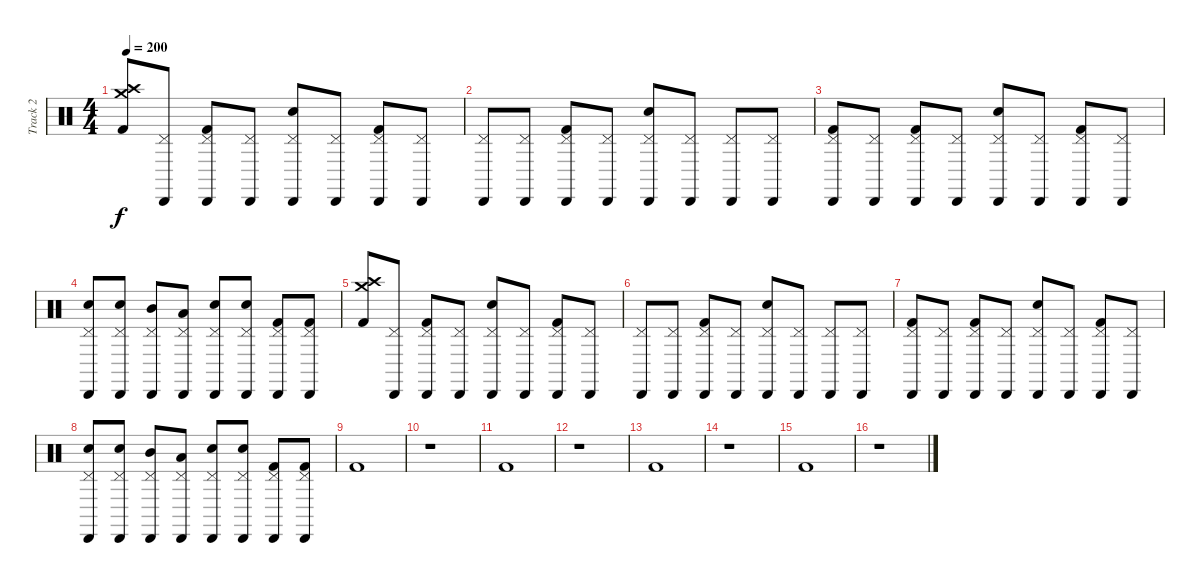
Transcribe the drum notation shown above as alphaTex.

\track ("Track 2" "Track 2") {instrument percussion}
\staff {score}
\articulation defaults
\ts (4 4)
\tempo 200
\clef neutral
\ks c
("Crash high (hit)" "Crash medium (hit)" "Kick (hit) 2").8{dy f} ("Cabasa (hit)" "Pedal Hi-Hat (hit)").8 ("Cabasa (hit)" "Pedal Hi-Hat (hit)" "Kick (hit) 2").8 ("Cabasa (hit)" "Pedal Hi-Hat (hit)").8 ("Cabasa (hit)" "Pedal Hi-Hat (hit)" "Snare (hit) 2").8 ("Cabasa (hit)" "Pedal Hi-Hat (hit)").8 ("Cabasa (hit)" "Pedal Hi-Hat (hit)" "Kick (hit) 2").8 ("Cabasa (hit)" "Pedal Hi-Hat (hit)").8 |
("Cabasa (hit)" "Pedal Hi-Hat (hit)").8 ("Cabasa (hit)" "Pedal Hi-Hat (hit)").8 ("Cabasa (hit)" "Pedal Hi-Hat (hit)" "Kick (hit) 2").8 ("Cabasa (hit)" "Pedal Hi-Hat (hit)").8 ("Cabasa (hit)" "Pedal Hi-Hat (hit)" "Snare (hit) 2").8 ("Cabasa (hit)" "Pedal Hi-Hat (hit)").8 ("Cabasa (hit)" "Pedal Hi-Hat (hit)").8 ("Cabasa (hit)" "Pedal Hi-Hat (hit)").8 |
("Cabasa (hit)" "Pedal Hi-Hat (hit)" "Kick (hit) 2").8 ("Cabasa (hit)" "Pedal Hi-Hat (hit)").8 ("Cabasa (hit)" "Pedal Hi-Hat (hit)" "Kick (hit) 2").8 ("Cabasa (hit)" "Pedal Hi-Hat (hit)").8 ("Cabasa (hit)" "Pedal Hi-Hat (hit)" "Snare (hit) 2").8 ("Cabasa (hit)" "Pedal Hi-Hat (hit)").8 ("Cabasa (hit)" "Pedal Hi-Hat (hit)" "Kick (hit) 2").8 ("Cabasa (hit)" "Pedal Hi-Hat (hit)").8 |
("Cabasa (hit)" "Pedal Hi-Hat (hit)" "Snare (hit) 2").8 ("Cabasa (hit)" "Pedal Hi-Hat (hit)" "Snare (hit) 2").8 ("Cabasa (hit)" "Pedal Hi-Hat (hit)" "Mid Tom (hit)").8 ("Cabasa (hit)" "Pedal Hi-Hat (hit)" "Low Floor Tom (hit)").8 ("Cabasa (hit)" "Pedal Hi-Hat (hit)" "Snare (hit) 2").8 ("Cabasa (hit)" "Pedal Hi-Hat (hit)" "Snare (hit) 2").8 ("Cabasa (hit)" "Pedal Hi-Hat (hit)" "Kick (hit) 2").8 ("Cabasa (hit)" "Pedal Hi-Hat (hit)" "Kick (hit) 2").8 |
("Crash high (hit)" "Crash medium (hit)" "Kick (hit) 2").8 ("Cabasa (hit)" "Pedal Hi-Hat (hit)").8 ("Cabasa (hit)" "Pedal Hi-Hat (hit)" "Kick (hit) 2").8 ("Cabasa (hit)" "Pedal Hi-Hat (hit)").8 ("Cabasa (hit)" "Pedal Hi-Hat (hit)" "Snare (hit) 2").8 ("Cabasa (hit)" "Pedal Hi-Hat (hit)").8 ("Cabasa (hit)" "Pedal Hi-Hat (hit)" "Kick (hit) 2").8 ("Cabasa (hit)" "Pedal Hi-Hat (hit)").8 |
("Cabasa (hit)" "Pedal Hi-Hat (hit)").8 ("Cabasa (hit)" "Pedal Hi-Hat (hit)").8 ("Cabasa (hit)" "Pedal Hi-Hat (hit)" "Kick (hit) 2").8 ("Cabasa (hit)" "Pedal Hi-Hat (hit)").8 ("Cabasa (hit)" "Pedal Hi-Hat (hit)" "Snare (hit) 2").8 ("Cabasa (hit)" "Pedal Hi-Hat (hit)").8 ("Cabasa (hit)" "Pedal Hi-Hat (hit)").8 ("Cabasa (hit)" "Pedal Hi-Hat (hit)").8 |
("Cabasa (hit)" "Pedal Hi-Hat (hit)" "Kick (hit) 2").8 ("Cabasa (hit)" "Pedal Hi-Hat (hit)").8 ("Cabasa (hit)" "Pedal Hi-Hat (hit)" "Kick (hit) 2").8 ("Cabasa (hit)" "Pedal Hi-Hat (hit)").8 ("Cabasa (hit)" "Pedal Hi-Hat (hit)" "Snare (hit) 2").8 ("Cabasa (hit)" "Pedal Hi-Hat (hit)").8 ("Cabasa (hit)" "Pedal Hi-Hat (hit)" "Kick (hit) 2").8 ("Cabasa (hit)" "Pedal Hi-Hat (hit)").8 |
("Cabasa (hit)" "Pedal Hi-Hat (hit)" "Snare (hit) 2").8 ("Cabasa (hit)" "Pedal Hi-Hat (hit)" "Snare (hit) 2").8 ("Cabasa (hit)" "Pedal Hi-Hat (hit)" "Mid Tom (hit)").8 ("Cabasa (hit)" "Pedal Hi-Hat (hit)" "Low Floor Tom (hit)").8 ("Cabasa (hit)" "Pedal Hi-Hat (hit)" "Snare (hit) 2").8 ("Cabasa (hit)" "Pedal Hi-Hat (hit)" "Snare (hit) 2").8 ("Cabasa (hit)" "Pedal Hi-Hat (hit)" "Kick (hit) 2").8 ("Cabasa (hit)" "Pedal Hi-Hat (hit)" "Kick (hit) 2").8 |
"Kick (hit) 2".1 |
r.1 |
"Kick (hit) 2".1 |
r.1 |
"Kick (hit) 2".1 |
r.1 |
"Kick (hit) 2".1 |
r.1
